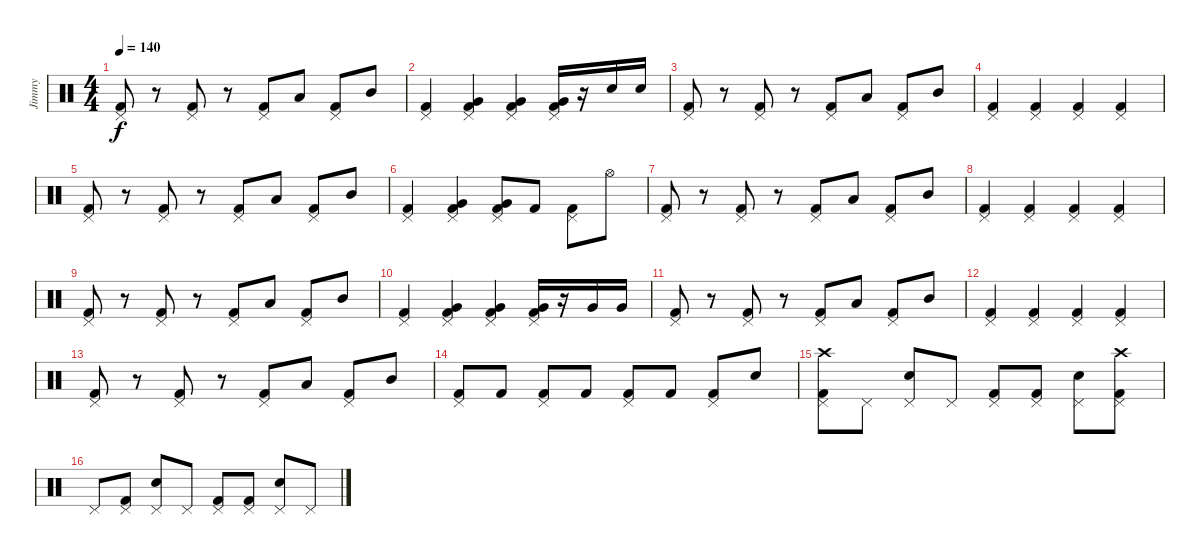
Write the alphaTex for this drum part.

\track ("Jimmy" "Jimmy") {instrument percussion}
\staff {score}
\articulation defaults
\ts (4 4)
\tempo 140
\clef neutral
\ks c
("Kick (hit) 2" "Pedal Hi-Hat (hit)").8{dy f} r.8 ("Kick (hit) 2" "Pedal Hi-Hat (hit)").8 r.8 ("Kick (hit) 2" "Pedal Hi-Hat (hit)").8 "Low Tom (hit)".8 ("Kick (hit) 2" "Pedal Hi-Hat (hit)").8 "Mid Tom (hit)".8 |
("Kick (hit) 2" "Pedal Hi-Hat (hit)").4 ("Kick (hit) 2" "Pedal Hi-Hat (hit)" "Very Low Tom (hit)").4 ("Kick (hit) 2" "Pedal Hi-Hat (hit)" "Very Low Tom (hit)").4 ("Kick (hit) 2" "Pedal Hi-Hat (hit)" "Very Low Tom (hit)").16 r.16 "Snare (hit) 2".16 "Snare (hit) 2".16 |
("Kick (hit) 2" "Pedal Hi-Hat (hit)").8 r.8 ("Kick (hit) 2" "Pedal Hi-Hat (hit)").8 r.8 ("Kick (hit) 2" "Pedal Hi-Hat (hit)").8 "Low Tom (hit)".8 ("Kick (hit) 2" "Pedal Hi-Hat (hit)").8 "Mid Tom (hit)".8 |
("Kick (hit) 2" "Pedal Hi-Hat (hit)").4 ("Kick (hit) 2" "Pedal Hi-Hat (hit)").4 ("Kick (hit) 2" "Pedal Hi-Hat (hit)").4 ("Kick (hit) 2" "Pedal Hi-Hat (hit)").4 |
("Kick (hit) 2" "Pedal Hi-Hat (hit)").8 r.8 ("Kick (hit) 2" "Pedal Hi-Hat (hit)").8 r.8 ("Kick (hit) 2" "Pedal Hi-Hat (hit)").8 "Low Tom (hit)".8 ("Kick (hit) 2" "Pedal Hi-Hat (hit)").8 "Mid Tom (hit)".8 |
("Kick (hit) 2" "Pedal Hi-Hat (hit)").4 ("Kick (hit) 2" "Pedal Hi-Hat (hit)" "Very Low Tom (hit)").4 ("Kick (hit) 2" "Pedal Hi-Hat (hit)" "Very Low Tom (hit)").8 "Kick (hit) 2".8 ("Kick (hit) 2" "Pedal Hi-Hat (hit)").8 "Hi-Hat (open)".8 |
("Kick (hit) 2" "Pedal Hi-Hat (hit)").8 r.8 ("Kick (hit) 2" "Pedal Hi-Hat (hit)").8 r.8 ("Kick (hit) 2" "Pedal Hi-Hat (hit)").8 "Low Tom (hit)".8 ("Kick (hit) 2" "Pedal Hi-Hat (hit)").8 "Mid Tom (hit)".8 |
("Kick (hit) 2" "Pedal Hi-Hat (hit)").4 ("Kick (hit) 2" "Pedal Hi-Hat (hit)").4 ("Kick (hit) 2" "Pedal Hi-Hat (hit)").4 ("Kick (hit) 2" "Pedal Hi-Hat (hit)").4 |
("Kick (hit) 2" "Pedal Hi-Hat (hit)").8 r.8 ("Kick (hit) 2" "Pedal Hi-Hat (hit)").8 r.8 ("Kick (hit) 2" "Pedal Hi-Hat (hit)").8 "Low Tom (hit)".8 ("Kick (hit) 2" "Pedal Hi-Hat (hit)").8 "Mid Tom (hit)".8 |
("Kick (hit) 2" "Pedal Hi-Hat (hit)").4 ("Kick (hit) 2" "Pedal Hi-Hat (hit)" "Very Low Tom (hit)").4 ("Kick (hit) 2" "Pedal Hi-Hat (hit)" "Very Low Tom (hit)").4 ("Kick (hit) 2" "Pedal Hi-Hat (hit)" "Very Low Tom (hit)").16 r.16 "Very Low Tom (hit)".16 "Very Low Tom (hit)".16 |
("Kick (hit) 2" "Pedal Hi-Hat (hit)").8 r.8 ("Kick (hit) 2" "Pedal Hi-Hat (hit)").8 r.8 ("Kick (hit) 2" "Pedal Hi-Hat (hit)").8 "Low Tom (hit)".8 ("Kick (hit) 2" "Pedal Hi-Hat (hit)").8 "Mid Tom (hit)".8 |
("Kick (hit) 2" "Pedal Hi-Hat (hit)").4 ("Kick (hit) 2" "Pedal Hi-Hat (hit)").4 ("Kick (hit) 2" "Pedal Hi-Hat (hit)").4 ("Kick (hit) 2" "Pedal Hi-Hat (hit)").4 |
("Kick (hit) 2" "Pedal Hi-Hat (hit)").8 r.8 ("Kick (hit) 2" "Pedal Hi-Hat (hit)").8 r.8 ("Kick (hit) 2" "Pedal Hi-Hat (hit)").8 "Low Tom (hit)".8 ("Kick (hit) 2" "Pedal Hi-Hat (hit)").8 "Mid Tom (hit)".8 |
("Kick (hit) 2" "Pedal Hi-Hat (hit)").8 "Kick (hit) 2".8 ("Kick (hit) 2" "Pedal Hi-Hat (hit)").8 "Kick (hit) 2".8 ("Kick (hit) 2" "Pedal Hi-Hat (hit)").8 "Kick (hit) 2".8 ("Kick (hit) 2" "Pedal Hi-Hat (hit)").8 "Electric Snare (hit)".8 |
("Kick (hit) 2" "Pedal Hi-Hat (hit)" "Crash high (hit)").8 "Pedal Hi-Hat (hit)".8 ("Snare (hit) 2" "Pedal Hi-Hat (hit)").8 "Pedal Hi-Hat (hit)".8 ("Kick (hit) 2" "Pedal Hi-Hat (hit)").8 ("Kick (hit) 2" "Pedal Hi-Hat (hit)").8 ("Snare (hit) 2" "Pedal Hi-Hat (hit)").8 ("Kick (hit) 2" "Pedal Hi-Hat (hit)" "Crash high (hit)").8 |
"Pedal Hi-Hat (hit)".8 ("Kick (hit) 2" "Pedal Hi-Hat (hit)").8 ("Snare (hit) 2" "Pedal Hi-Hat (hit)").8 "Pedal Hi-Hat (hit)".8 ("Kick (hit) 2" "Pedal Hi-Hat (hit)").8 ("Kick (hit) 2" "Pedal Hi-Hat (hit)").8 ("Snare (hit) 2" "Pedal Hi-Hat (hit)").8 "Pedal Hi-Hat (hit)".8
